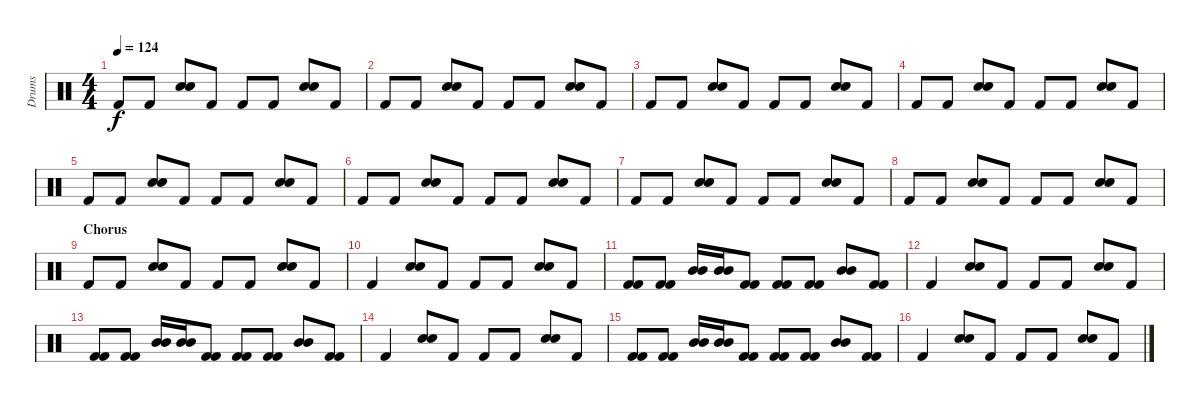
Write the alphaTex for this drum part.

\track ("Drums" "Drums") {instrument percussion}
\staff {score}
\articulation defaults
\ts (4 4)
\tempo 124
\clef neutral
\ks c "Kick (hit) 2".8{dy f} "Kick (hit) 2".8
("Snare (hit) 2" "Snare (hit) 2").8 "Kick (hit) 2".8 "Kick (hit) 2".8 "Kick (hit) 2".8 ("Snare (hit) 2" "Snare (hit) 2").8 "Kick (hit) 2".8 |
"Kick (hit) 2".8 "Kick (hit) 2".8 ("Snare (hit) 2" "Snare (hit) 2").8 "Kick (hit) 2".8 "Kick (hit) 2".8 "Kick (hit) 2".8 ("Snare (hit) 2" "Snare (hit) 2").8 "Kick (hit) 2".8 |
"Kick (hit) 2".8 "Kick (hit) 2".8 ("Snare (hit) 2" "Snare (hit) 2").8 "Kick (hit) 2".8 "Kick (hit) 2".8 "Kick (hit) 2".8 ("Snare (hit) 2" "Snare (hit) 2").8 "Kick (hit) 2".8 |
"Kick (hit) 2".8 "Kick (hit) 2".8 ("Snare (hit) 2" "Snare (hit) 2").8 "Kick (hit) 2".8 "Kick (hit) 2".8 "Kick (hit) 2".8 ("Snare (hit) 2" "Snare (hit) 2").8 "Kick (hit) 2".8 |
"Kick (hit) 2".8 "Kick (hit) 2".8 ("Snare (hit) 2" "Snare (hit) 2").8 "Kick (hit) 2".8 "Kick (hit) 2".8 "Kick (hit) 2".8 ("Snare (hit) 2" "Snare (hit) 2").8 "Kick (hit) 2".8 |
"Kick (hit) 2".8 "Kick (hit) 2".8 ("Snare (hit) 2" "Snare (hit) 2").8 "Kick (hit) 2".8 "Kick (hit) 2".8 "Kick (hit) 2".8 ("Snare (hit) 2" "Snare (hit) 2").8 "Kick (hit) 2".8 |
"Kick (hit) 2".8 "Kick (hit) 2".8 ("Snare (hit) 2" "Snare (hit) 2").8 "Kick (hit) 2".8 "Kick (hit) 2".8 "Kick (hit) 2".8 ("Snare (hit) 2" "Snare (hit) 2").8 "Kick (hit) 2".8 |
"Kick (hit) 2".8 "Kick (hit) 2".8 ("Snare (hit) 2" "Snare (hit) 2").8 "Kick (hit) 2".8 "Kick (hit) 2".8 "Kick (hit) 2".8 ("Snare (hit) 2" "Snare (hit) 2").8 "Kick (hit) 2".8 |
\section ("" "Chorus")
"Kick (hit) 2".8 "Kick (hit) 2".8 ("Snare (hit) 2" "Snare (hit) 2").8 "Kick (hit) 2".8 "Kick (hit) 2".8 "Kick (hit) 2".8 ("Snare (hit) 2" "Snare (hit) 2").8 "Kick (hit) 2".8 |
"Kick (hit) 2".4 ("Snare (hit) 2" "Snare (hit) 2").8 "Kick (hit) 2".8 "Kick (hit) 2".8 "Kick (hit) 2".8 ("Snare (hit) 2" "Snare (hit) 2").8 "Kick (hit) 2".8 |
("Kick (hit) 2" "Kick (hit) 2").8 ("Kick (hit) 2" "Kick (hit) 2").8 ("Mid Tom (hit)" "Mid Tom (hit)").16 ("Mid Tom (hit)" "Mid Tom (hit)").16 ("Kick (hit) 2" "Kick (hit) 2").8 ("Kick (hit) 2" "Kick (hit) 2").8 ("Kick (hit) 2" "Kick (hit) 2").8 ("Mid Tom (hit)" "Mid Tom (hit)").8 ("Kick (hit) 2" "Kick (hit) 2").8 |
"Kick (hit) 2".4 ("Snare (hit) 2" "Snare (hit) 2").8 "Kick (hit) 2".8 "Kick (hit) 2".8 "Kick (hit) 2".8 ("Snare (hit) 2" "Snare (hit) 2").8 "Kick (hit) 2".8 |
("Kick (hit) 2" "Kick (hit) 2").8 ("Kick (hit) 2" "Kick (hit) 2").8 ("Mid Tom (hit)" "Mid Tom (hit)").16 ("Mid Tom (hit)" "Mid Tom (hit)").16 ("Kick (hit) 2" "Kick (hit) 2").8 ("Kick (hit) 2" "Kick (hit) 2").8 ("Kick (hit) 2" "Kick (hit) 2").8 ("Mid Tom (hit)" "Mid Tom (hit)").8 ("Kick (hit) 2" "Kick (hit) 2").8 |
"Kick (hit) 2".4 ("Snare (hit) 2" "Snare (hit) 2").8 "Kick (hit) 2".8 "Kick (hit) 2".8 "Kick (hit) 2".8 ("Snare (hit) 2" "Snare (hit) 2").8 "Kick (hit) 2".8 |
("Kick (hit) 2" "Kick (hit) 2").8 ("Kick (hit) 2" "Kick (hit) 2").8 ("Mid Tom (hit)" "Mid Tom (hit)").16 ("Mid Tom (hit)" "Mid Tom (hit)").16 ("Kick (hit) 2" "Kick (hit) 2").8 ("Kick (hit) 2" "Kick (hit) 2").8 ("Kick (hit) 2" "Kick (hit) 2").8 ("Mid Tom (hit)" "Mid Tom (hit)").8 ("Kick (hit) 2" "Kick (hit) 2").8 |
"Kick (hit) 2".4 ("Snare (hit) 2" "Snare (hit) 2").8 "Kick (hit) 2".8 "Kick (hit) 2".8 "Kick (hit) 2".8 ("Snare (hit) 2" "Snare (hit) 2").8 "Kick (hit) 2".8
